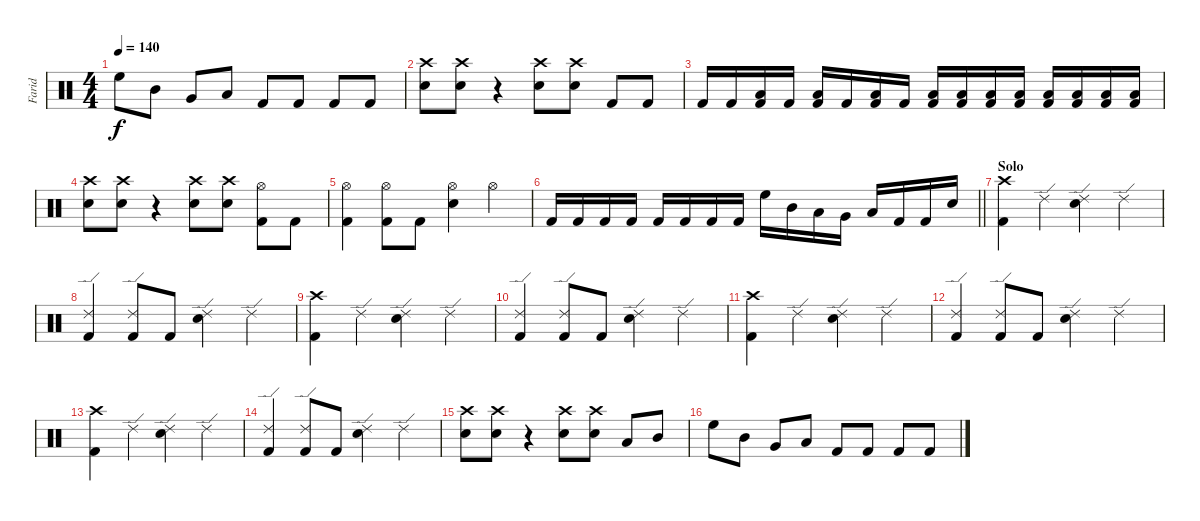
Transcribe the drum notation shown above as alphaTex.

\track ("Farid" "Farid") {instrument percussion}
\staff {score}
\articulation defaults
\ts (4 4)
\tempo 140
\clef neutral
\ks c "High Floor Tom (hit)".8{dy f} "Mid Tom (hit)".8 "Very Low Tom (hit)".8 "Low Floor Tom (hit)".8 "Kick (hit) 2".8 "Kick (hit) 2".8 "Kick (hit) 2".8 "Kick (hit) 2".8
|
("Crash high (hit)" "Snare (hit) 2").8 ("Crash high (hit)" "Snare (hit) 2").8 r.4 ("Crash high (hit)" "Snare (hit) 2").8 ("Crash high (hit)" "Snare (hit) 2").8 "Kick (hit) 2".8 "Kick (hit) 2".8 |
"Kick (hit) 2".16 "Kick (hit) 2".16 ("Low Floor Tom (hit)" "Kick (hit) 2").16 "Kick (hit) 2".16 ("Low Floor Tom (hit)" "Kick (hit) 2").16 "Kick (hit) 2".16 ("Low Floor Tom (hit)" "Kick (hit) 2").16 "Kick (hit) 2".16 ("Low Floor Tom (hit)" "Kick (hit) 2").16 ("Low Floor Tom (hit)" "Kick (hit) 2").16 ("Low Floor Tom (hit)" "Kick (hit) 2").16 ("Low Floor Tom (hit)" "Kick (hit) 2").16 ("Low Floor Tom (hit)" "Kick (hit) 2").16 ("Low Floor Tom (hit)" "Kick (hit) 2").16 ("Low Floor Tom (hit)" "Kick (hit) 2").16 ("Low Floor Tom (hit)" "Kick (hit) 2").16 |
("Crash high (hit)" "Snare (hit) 2").8 ("Crash high (hit)" "Snare (hit) 2").8 r.4 ("Crash high (hit)" "Snare (hit) 2").8 ("Crash high (hit)" "Snare (hit) 2").8 ("Hi-Hat (open)" "Kick (hit) 2").8 "Kick (hit) 2".8 |
("Hi-Hat (open)" "Kick (hit) 2").4 ("Hi-Hat (open)" "Kick (hit) 2").8 "Kick (hit) 2".8 ("Hi-Hat (open)" "Snare (hit) 2").4 "Hi-Hat (open)".4 |
\barLineRight lightlight "Kick (hit) 2".16 "Kick (hit) 2".16 "Kick (hit) 2".16 "Kick (hit) 2".16 "Kick (hit) 2".16 "Kick (hit) 2".16 "Kick (hit) 2".16 "Kick (hit) 2".16 "High Floor Tom (hit)".16 "Mid Tom (hit)".16 "Low Tom (hit)".16 "Very Low Tom (hit)".16 "Low Floor Tom (hit)".16 "Kick (hit) 2".16 "Kick (hit) 2".16 "Snare (hit) 2".16
|
\section ("" "Solo")
("Crash high (hit)" "Kick (hit) 2").4 "Ride (edge) 2".4 ("Ride (edge) 2" "Snare (hit) 2").4 "Ride (edge) 2".4 |
("Ride (edge) 2" "Kick (hit) 2").4 ("Ride (edge) 2" "Kick (hit) 2").8 "Kick (hit) 2".8 ("Ride (edge) 2" "Snare (hit) 2").4 "Ride (edge) 2".4 |
("Crash high (hit)" "Kick (hit) 2").4 "Ride (edge) 2".4 ("Ride (edge) 2" "Snare (hit) 2").4 "Ride (edge) 2".4 |
("Ride (edge) 2" "Kick (hit) 2").4 ("Ride (edge) 2" "Kick (hit) 2").8 "Kick (hit) 2".8 ("Ride (edge) 2" "Snare (hit) 2").4 "Ride (edge) 2".4 |
("Crash high (hit)" "Kick (hit) 2").4 "Ride (edge) 2".4 ("Ride (edge) 2" "Snare (hit) 2").4 "Ride (edge) 2".4 |
("Ride (edge) 2" "Kick (hit) 2").4 ("Ride (edge) 2" "Kick (hit) 2").8 "Kick (hit) 2".8 ("Ride (edge) 2" "Snare (hit) 2").4 "Ride (edge) 2".4 |
("Crash high (hit)" "Kick (hit) 2").4 "Ride (edge) 2".4 ("Ride (edge) 2" "Snare (hit) 2").4 "Ride (edge) 2".4 |
("Ride (edge) 2" "Kick (hit) 2").4 ("Ride (edge) 2" "Kick (hit) 2").8 "Kick (hit) 2".8 ("Ride (edge) 2" "Snare (hit) 2").4 "Ride (edge) 2".4 |
("Crash high (hit)" "Snare (hit) 2").8 ("Crash high (hit)" "Snare (hit) 2").8 r.4 ("Crash high (hit)" "Snare (hit) 2").8 ("Crash high (hit)" "Snare (hit) 2").8 "Low Tom (hit)".8 "Mid Tom (hit)".8 |
"High Floor Tom (hit)".8 "Mid Tom (hit)".8 "Very Low Tom (hit)".8 "Low Floor Tom (hit)".8 "Kick (hit) 2".8 "Kick (hit) 2".8 "Kick (hit) 2".8 "Kick (hit) 2".8
